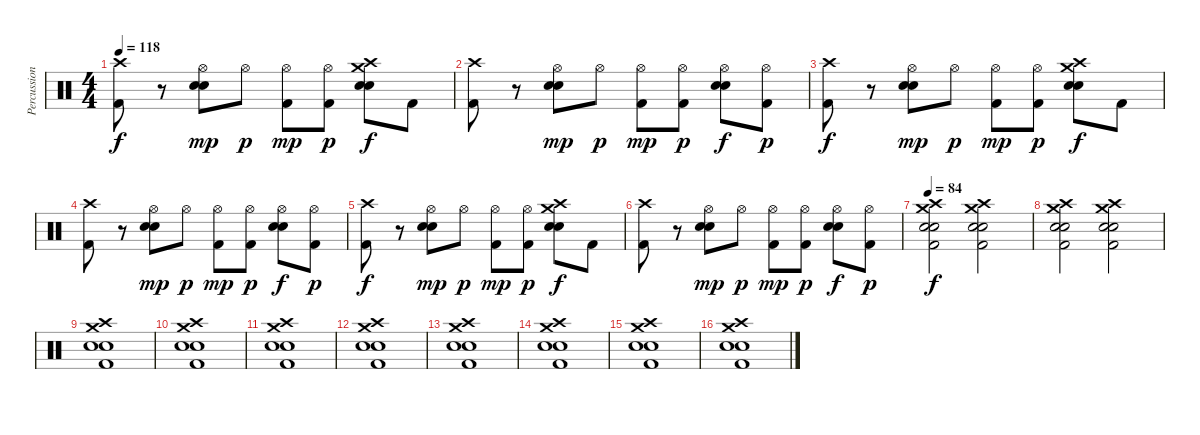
\track ("Percussion" "Percussion") {instrument percussion}
\staff
\articulation defaults
\ts (4 4)
\tempo 118
\clef neutral
\ks c
("Crash high (hit)" "Kick (hit) 2").8{dy f} r.8 ("Hi-Hat (open)" "Electric Snare (hit)" "Snare (hit) 2").8{dy mp} "Hi-Hat (open)".8{dy p} ("Hi-Hat (open)" "Kick (hit) 2").8{dy mp} ("Hi-Hat (open)" "Kick (hit) 2").8{dy p} ("Crash medium (hit)" "Crash high (hit)" "Electric Snare (hit)" "Snare (hit) 2").8{dy f} "Kick (hit) 2".8 |
("Crash high (hit)" "Kick (hit) 2").8 r.8 ("Hi-Hat (open)" "Electric Snare (hit)" "Snare (hit) 2").8{dy mp} "Hi-Hat (open)".8{dy p} ("Hi-Hat (open)" "Kick (hit) 2").8{dy mp} ("Hi-Hat (open)" "Kick (hit) 2").8{dy p} ("Hi-Hat (open)" "Electric Snare (hit)" "Snare (hit) 2").8{dy f} ("Hi-Hat (open)" "Kick (hit) 2").8{dy p} |
("Crash high (hit)" "Kick (hit) 2").8{dy f} r.8 ("Hi-Hat (open)" "Electric Snare (hit)" "Snare (hit) 2").8{dy mp} "Hi-Hat (open)".8{dy p} ("Hi-Hat (open)" "Kick (hit) 2").8{dy mp} ("Hi-Hat (open)" "Kick (hit) 2").8{dy p} ("Crash medium (hit)" "Crash high (hit)" "Electric Snare (hit)" "Snare (hit) 2").8{dy f} "Kick (hit) 2".8 |
("Crash high (hit)" "Kick (hit) 2").8 r.8 ("Hi-Hat (open)" "Electric Snare (hit)" "Snare (hit) 2").8{dy mp} "Hi-Hat (open)".8{dy p} ("Hi-Hat (open)" "Kick (hit) 2").8{dy mp} ("Hi-Hat (open)" "Kick (hit) 2").8{dy p} ("Hi-Hat (open)" "Electric Snare (hit)" "Snare (hit) 2").8{dy f} ("Hi-Hat (open)" "Kick (hit) 2").8{dy p} |
("Crash high (hit)" "Kick (hit) 2").8{dy f} r.8 ("Hi-Hat (open)" "Electric Snare (hit)" "Snare (hit) 2").8{dy mp} "Hi-Hat (open)".8{dy p} ("Hi-Hat (open)" "Kick (hit) 2").8{dy mp} ("Hi-Hat (open)" "Kick (hit) 2").8{dy p} ("Crash medium (hit)" "Crash high (hit)" "Electric Snare (hit)" "Snare (hit) 2").8{dy f} "Kick (hit) 2".8 |
("Crash high (hit)" "Kick (hit) 2").8 r.8 ("Hi-Hat (open)" "Electric Snare (hit)" "Snare (hit) 2").8{dy mp} "Hi-Hat (open)".8{dy p} ("Hi-Hat (open)" "Kick (hit) 2").8{dy mp} ("Hi-Hat (open)" "Kick (hit) 2").8{dy p} ("Hi-Hat (open)" "Electric Snare (hit)" "Snare (hit) 2").8{dy f} ("Hi-Hat (open)" "Kick (hit) 2").8{dy p} |
\tempo 84
("Crash high (hit)" "Crash medium (hit)" "Electric Snare (hit)" "Snare (hit) 2" "Kick (hit) 2").2{dy f} ("Crash high (hit)" "Crash medium (hit)" "Electric Snare (hit)" "Snare (hit) 2" "Kick (hit) 2").2 |
("Crash high (hit)" "Crash medium (hit)" "Electric Snare (hit)" "Snare (hit) 2" "Kick (hit) 2").2 ("Crash high (hit)" "Crash medium (hit)" "Electric Snare (hit)" "Snare (hit) 2" "Kick (hit) 2").2 |
("Crash high (hit)" "Crash medium (hit)" "Electric Snare (hit)" "Snare (hit) 2" "Kick (hit) 2").1 |
("Crash high (hit)" "Crash medium (hit)" "Electric Snare (hit)" "Snare (hit) 2" "Kick (hit) 2").1 |
("Crash high (hit)" "Crash medium (hit)" "Electric Snare (hit)" "Snare (hit) 2" "Kick (hit) 2").1 |
("Crash high (hit)" "Crash medium (hit)" "Electric Snare (hit)" "Snare (hit) 2" "Kick (hit) 2").1 |
("Crash high (hit)" "Crash medium (hit)" "Electric Snare (hit)" "Snare (hit) 2" "Kick (hit) 2").1 |
("Crash high (hit)" "Crash medium (hit)" "Electric Snare (hit)" "Snare (hit) 2" "Kick (hit) 2").1 |
("Crash high (hit)" "Crash medium (hit)" "Electric Snare (hit)" "Snare (hit) 2" "Kick (hit) 2").1 |
("Crash high (hit)" "Crash medium (hit)" "Electric Snare (hit)" "Snare (hit) 2" "Kick (hit) 2").1
